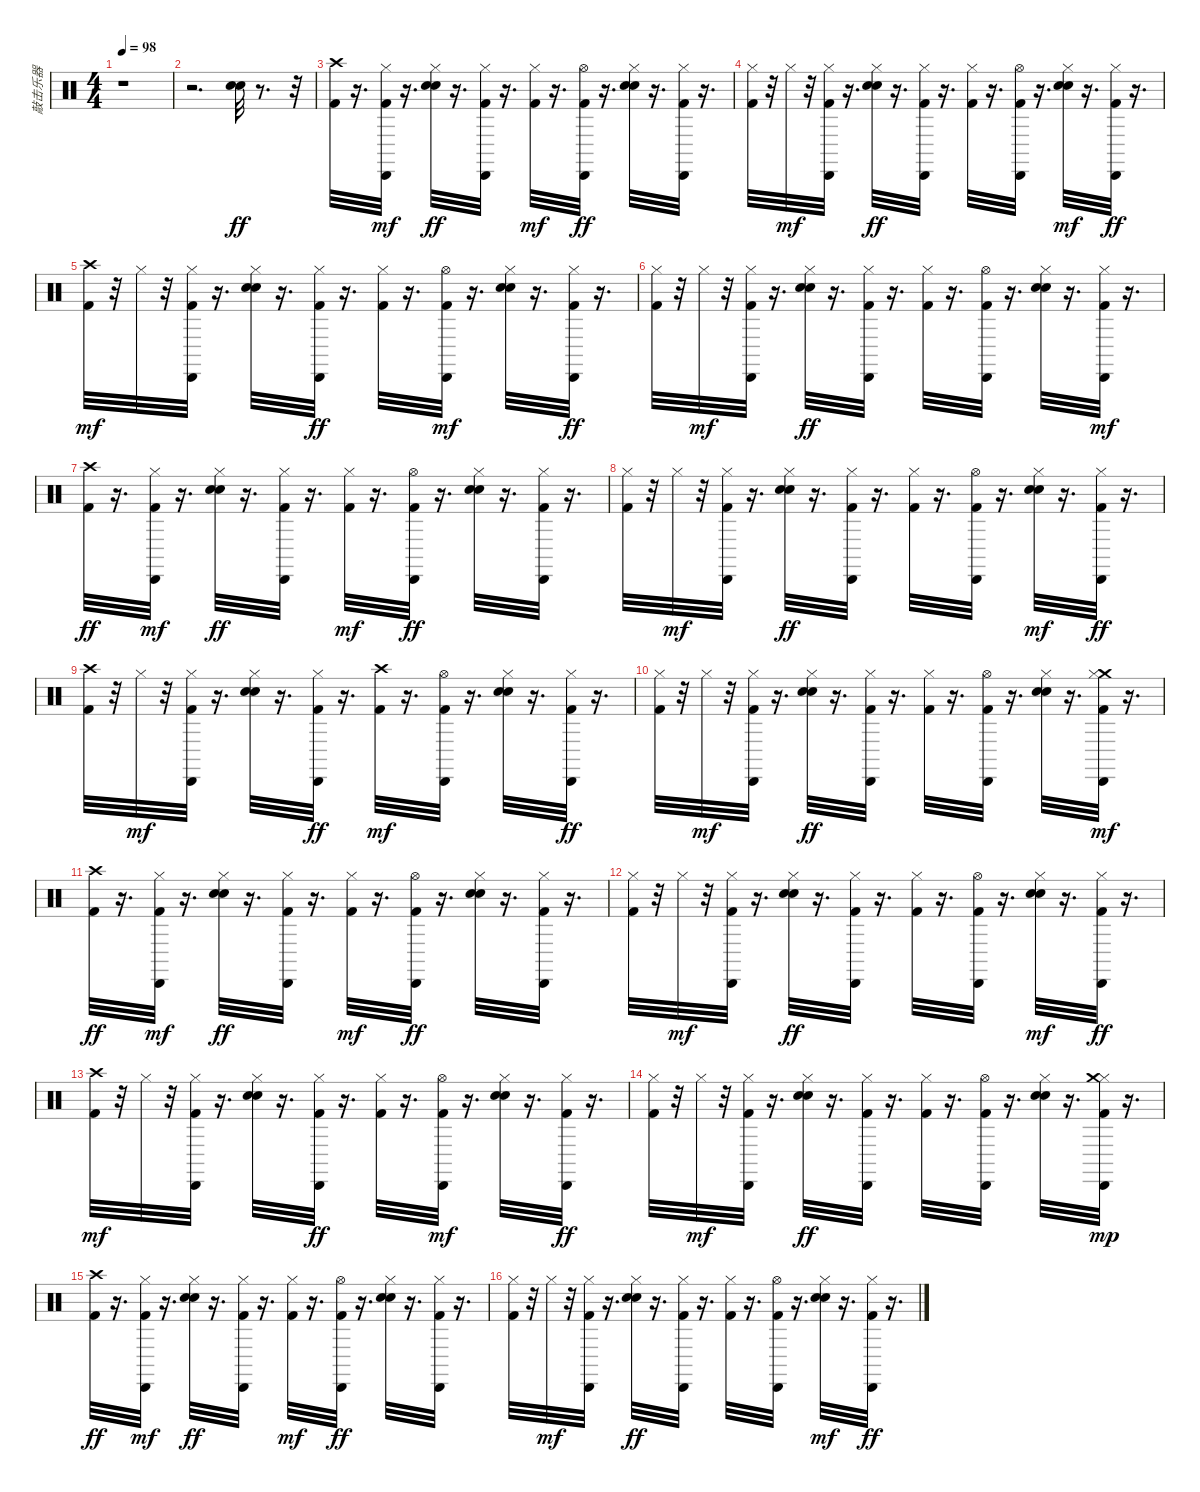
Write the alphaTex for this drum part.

\track ("敲击乐器" "敲击乐器") {instrument percussion}
\staff {score}
\articulation defaults
\ts (4 4)
\tempo 98
\clef neutral
\ks c
r.1{dy mp} |
r.2{d} ("Hand Clap (hit)" "Snare (hit) 2").32{dy ff} r.8{d} r.32 |
("Crash high (hit)" "Kick (hit) 2").32 r.16{d} ("Cabasa (hit)" "Hi-Hat (closed)" "Kick (hit) 2").32{dy mf} r.16{d} ("Hi-Hat (closed)" "Snare (hit) 2" "Hand Clap (hit)").32{dy ff} r.16{d} ("Cabasa (hit)" "Kick (hit) 2" "Hi-Hat (closed)").32 r.16{d} ("Kick (hit) 2" "Hi-Hat (closed)").32{dy mf} r.16{d} ("Cabasa (hit)" "Kick (hit) 2" "Hi-Hat (open)").32{dy ff} r.16{d} ("Hi-Hat (closed)" "Snare (hit) 2" "Hand Clap (hit)").32 r.16{d} ("Cabasa (hit)" "Hi-Hat (closed)" "Kick (hit) 2").32 r.16{d} |
("Kick (hit) 2" "Hi-Hat (closed)").32 r.32 "Hi-Hat (closed)".32{dy mf} r.32 ("Cabasa (hit)" "Kick (hit) 2" "Hi-Hat (closed)").32 r.16{d} ("Hi-Hat (closed)" "Hand Clap (hit)" "Snare (hit) 2").32{dy ff} r.16{d} ("Cabasa (hit)" "Hi-Hat (closed)" "Kick (hit) 2").32 r.16{d} ("Kick (hit) 2" "Hi-Hat (closed)").32 r.16{d} ("Cabasa (hit)" "Kick (hit) 2" "Hi-Hat (open)").32 r.16{d} ("Snare (hit) 2" "Hand Clap (hit)" "Hi-Hat (closed)").32{dy mf} r.16{d} ("Kick (hit) 2" "Cabasa (hit)" "Hi-Hat (closed)").32{dy ff} r.16{d} |
("Kick (hit) 2" "Crash high (hit)").32{dy mf} r.32 "Hi-Hat (closed)".32 r.32 ("Kick (hit) 2" "Hi-Hat (closed)" "Cabasa (hit)").32 r.16{d} ("Hand Clap (hit)" "Snare (hit) 2" "Hi-Hat (closed)").32 r.16{d} ("Hi-Hat (closed)" "Cabasa (hit)" "Kick (hit) 2").32{dy ff} r.16{d} ("Kick (hit) 2" "Hi-Hat (closed)").32 r.16{d} ("Hi-Hat (open)" "Kick (hit) 2" "Cabasa (hit)").32{dy mf} r.16{d} ("Hand Clap (hit)" "Snare (hit) 2" "Hi-Hat (closed)").32 r.16{d} ("Cabasa (hit)" "Kick (hit) 2" "Hi-Hat (closed)").32{dy ff} r.16{d} |
("Kick (hit) 2" "Hi-Hat (closed)").32 r.32 "Hi-Hat (closed)".32{dy mf} r.32 ("Cabasa (hit)" "Kick (hit) 2" "Hi-Hat (closed)").32 r.16{d} ("Hi-Hat (closed)" "Hand Clap (hit)" "Snare (hit) 2").32{dy ff} r.16{d} ("Cabasa (hit)" "Hi-Hat (closed)" "Kick (hit) 2").32 r.16{d} ("Kick (hit) 2" "Hi-Hat (closed)").32 r.16{d} ("Kick (hit) 2" "Cabasa (hit)" "Hi-Hat (open)").32 r.16{d} ("Hi-Hat (closed)" "Hand Clap (hit)" "Snare (hit) 2").32 r.16{d} ("Kick (hit) 2" "Hi-Hat (closed)" "Cabasa (hit)").32{dy mf} r.16{d} |
("Crash high (hit)" "Kick (hit) 2").32{dy ff} r.16{d} ("Cabasa (hit)" "Hi-Hat (closed)" "Kick (hit) 2").32{dy mf} r.16{d} ("Hi-Hat (closed)" "Snare (hit) 2" "Hand Clap (hit)").32{dy ff} r.16{d} ("Cabasa (hit)" "Kick (hit) 2" "Hi-Hat (closed)").32 r.16{d} ("Kick (hit) 2" "Hi-Hat (closed)").32{dy mf} r.16{d} ("Cabasa (hit)" "Kick (hit) 2" "Hi-Hat (open)").32{dy ff} r.16{d} ("Hi-Hat (closed)" "Snare (hit) 2" "Hand Clap (hit)").32 r.16{d} ("Cabasa (hit)" "Hi-Hat (closed)" "Kick (hit) 2").32 r.16{d} |
("Kick (hit) 2" "Hi-Hat (closed)").32 r.32 "Hi-Hat (closed)".32{dy mf} r.32 ("Cabasa (hit)" "Kick (hit) 2" "Hi-Hat (closed)").32 r.16{d} ("Hi-Hat (closed)" "Hand Clap (hit)" "Snare (hit) 2").32{dy ff} r.16{d} ("Cabasa (hit)" "Hi-Hat (closed)" "Kick (hit) 2").32 r.16{d} ("Kick (hit) 2" "Hi-Hat (closed)").32 r.16{d} ("Cabasa (hit)" "Kick (hit) 2" "Hi-Hat (open)").32 r.16{d} ("Snare (hit) 2" "Hand Clap (hit)" "Hi-Hat (closed)").32{dy mf} r.16{d} ("Kick (hit) 2" "Cabasa (hit)" "Hi-Hat (closed)").32{dy ff} r.16{d} |
("Crash high (hit)" "Kick (hit) 2").32 r.32 "Hi-Hat (closed)".32{dy mf} r.32 ("Kick (hit) 2" "Hi-Hat (closed)" "Cabasa (hit)").32 r.16{d} ("Hand Clap (hit)" "Snare (hit) 2" "Hi-Hat (closed)").32 r.16{d} ("Hi-Hat (closed)" "Cabasa (hit)" "Kick (hit) 2").32{dy ff} r.16{d} ("Kick (hit) 2" "Crash high (hit)").32{dy mf} r.16{d} ("Hi-Hat (open)" "Kick (hit) 2" "Cabasa (hit)").32 r.16{d} ("Hand Clap (hit)" "Snare (hit) 2" "Hi-Hat (closed)").32 r.16{d} ("Cabasa (hit)" "Kick (hit) 2" "Hi-Hat (closed)").32{dy ff} r.16{d} |
("Kick (hit) 2" "Hi-Hat (closed)").32 r.32 "Hi-Hat (closed)".32{dy mf} r.32 ("Cabasa (hit)" "Kick (hit) 2" "Hi-Hat (closed)").32 r.16{d} ("Hi-Hat (closed)" "Hand Clap (hit)" "Snare (hit) 2").32{dy ff} r.16{d} ("Cabasa (hit)" "Hi-Hat (closed)" "Kick (hit) 2").32 r.16{d} ("Kick (hit) 2" "Hi-Hat (closed)").32 r.16{d} ("Kick (hit) 2" "Cabasa (hit)" "Hi-Hat (open)").32 r.16{d} ("Hi-Hat (closed)" "Hand Clap (hit)" "Snare (hit) 2").32 r.16{d} ("Crash medium (hit)" "Kick (hit) 2" "Hi-Hat (closed)" "Cabasa (hit)").32{dy mf} r.16{d} |
("Crash high (hit)" "Kick (hit) 2").32{dy ff} r.16{d} ("Cabasa (hit)" "Hi-Hat (closed)" "Kick (hit) 2").32{dy mf} r.16{d} ("Hi-Hat (closed)" "Snare (hit) 2" "Hand Clap (hit)").32{dy ff} r.16{d} ("Cabasa (hit)" "Kick (hit) 2" "Hi-Hat (closed)").32 r.16{d} ("Kick (hit) 2" "Hi-Hat (closed)").32{dy mf} r.16{d} ("Cabasa (hit)" "Kick (hit) 2" "Hi-Hat (open)").32{dy ff} r.16{d} ("Hi-Hat (closed)" "Snare (hit) 2" "Hand Clap (hit)").32 r.16{d} ("Cabasa (hit)" "Hi-Hat (closed)" "Kick (hit) 2").32 r.16{d} |
("Kick (hit) 2" "Hi-Hat (closed)").32 r.32 "Hi-Hat (closed)".32{dy mf} r.32 ("Cabasa (hit)" "Kick (hit) 2" "Hi-Hat (closed)").32 r.16{d} ("Hi-Hat (closed)" "Hand Clap (hit)" "Snare (hit) 2").32{dy ff} r.16{d} ("Cabasa (hit)" "Hi-Hat (closed)" "Kick (hit) 2").32 r.16{d} ("Kick (hit) 2" "Hi-Hat (closed)").32 r.16{d} ("Cabasa (hit)" "Kick (hit) 2" "Hi-Hat (open)").32 r.16{d} ("Snare (hit) 2" "Hand Clap (hit)" "Hi-Hat (closed)").32{dy mf} r.16{d} ("Kick (hit) 2" "Cabasa (hit)" "Hi-Hat (closed)").32{dy ff} r.16{d} |
("Kick (hit) 2" "Crash high (hit)").32{dy mf} r.32 "Hi-Hat (closed)".32 r.32 ("Kick (hit) 2" "Hi-Hat (closed)" "Cabasa (hit)").32 r.16{d} ("Hand Clap (hit)" "Snare (hit) 2" "Hi-Hat (closed)").32 r.16{d} ("Hi-Hat (closed)" "Cabasa (hit)" "Kick (hit) 2").32{dy ff} r.16{d} ("Kick (hit) 2" "Hi-Hat (closed)").32 r.16{d} ("Hi-Hat (open)" "Kick (hit) 2" "Cabasa (hit)").32{dy mf} r.16{d} ("Hand Clap (hit)" "Snare (hit) 2" "Hi-Hat (closed)").32 r.16{d} ("Cabasa (hit)" "Kick (hit) 2" "Hi-Hat (closed)").32{dy ff} r.16{d} |
("Kick (hit) 2" "Hi-Hat (closed)").32 r.32 "Hi-Hat (closed)".32{dy mf} r.32 ("Cabasa (hit)" "Kick (hit) 2" "Hi-Hat (closed)").32 r.16{d} ("Hi-Hat (closed)" "Hand Clap (hit)" "Snare (hit) 2").32{dy ff} r.16{d} ("Cabasa (hit)" "Hi-Hat (closed)" "Kick (hit) 2").32 r.16{d} ("Kick (hit) 2" "Hi-Hat (closed)").32 r.16{d} ("Kick (hit) 2" "Cabasa (hit)" "Hi-Hat (open)").32 r.16{d} ("Hi-Hat (closed)" "Hand Clap (hit)" "Snare (hit) 2").32 r.16{d} ("Kick (hit) 2" "Hi-Hat (closed)" "Cabasa (hit)" "Crash medium (hit)").32{dy mp} r.16{d} |
("Crash high (hit)" "Kick (hit) 2").32{dy ff} r.16{d} ("Cabasa (hit)" "Hi-Hat (closed)" "Kick (hit) 2").32{dy mf} r.16{d} ("Hi-Hat (closed)" "Snare (hit) 2" "Hand Clap (hit)").32{dy ff} r.16{d} ("Cabasa (hit)" "Kick (hit) 2" "Hi-Hat (closed)").32 r.16{d} ("Kick (hit) 2" "Hi-Hat (closed)").32{dy mf} r.16{d} ("Cabasa (hit)" "Kick (hit) 2" "Hi-Hat (open)").32{dy ff} r.16{d} ("Hi-Hat (closed)" "Snare (hit) 2" "Hand Clap (hit)").32 r.16{d} ("Cabasa (hit)" "Hi-Hat (closed)" "Kick (hit) 2").32 r.16{d} |
("Kick (hit) 2" "Hi-Hat (closed)").32 r.32 "Hi-Hat (closed)".32{dy mf} r.32 ("Cabasa (hit)" "Kick (hit) 2" "Hi-Hat (closed)").32 r.16{d} ("Hi-Hat (closed)" "Hand Clap (hit)" "Snare (hit) 2").32{dy ff} r.16{d} ("Cabasa (hit)" "Hi-Hat (closed)" "Kick (hit) 2").32 r.16{d} ("Kick (hit) 2" "Hi-Hat (closed)").32 r.16{d} ("Cabasa (hit)" "Kick (hit) 2" "Hi-Hat (open)").32 r.16{d} ("Snare (hit) 2" "Hand Clap (hit)" "Hi-Hat (closed)").32{dy mf} r.16{d} ("Kick (hit) 2" "Cabasa (hit)" "Hi-Hat (closed)").32{dy ff} r.16{d}
